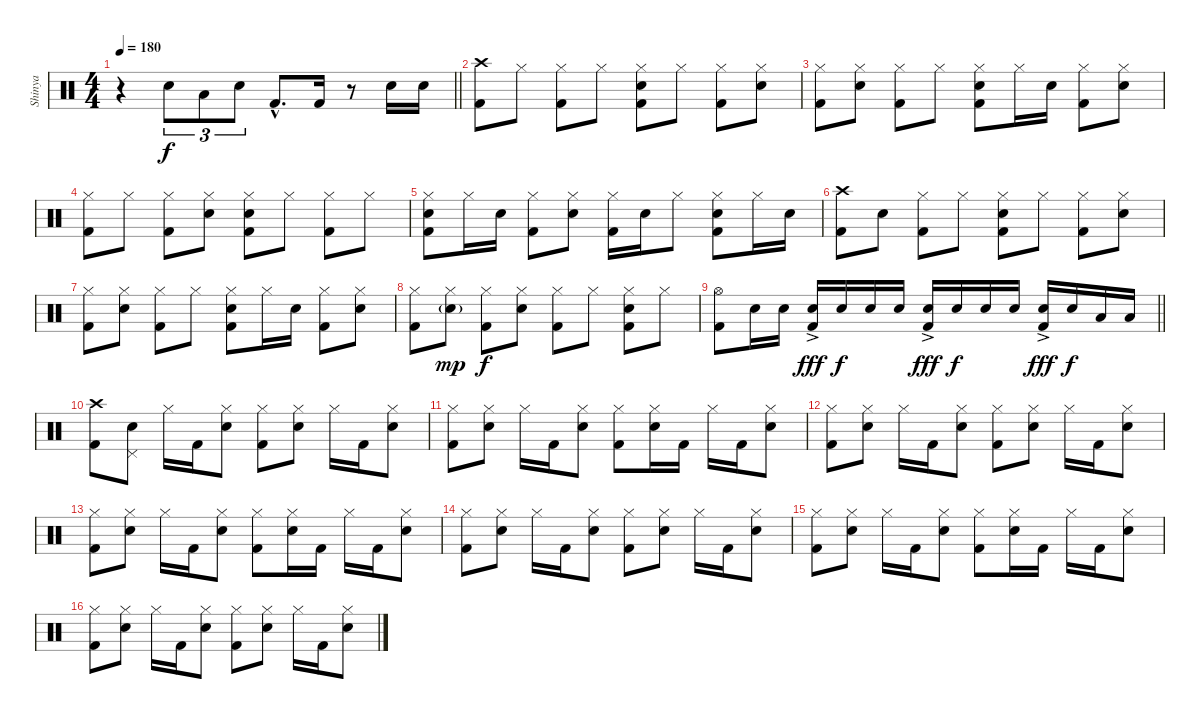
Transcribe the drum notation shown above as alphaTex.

\track ("Shinya" "Shinya") {instrument percussion}
\staff {score}
\articulation defaults
\ts (4 4)
\tempo 180
\clef neutral
\barLineRight lightlight
\ks c
r.4{dy f} "Electric Snare (hit)".8{tu (3 2)} "Low Tom (hit)".8{tu (3 2)} "Electric Snare (hit)".8{tu (3 2)} "Kick (hit) 2"{hac}.8{d} "Kick (hit) 2".16 r.8 "Electric Snare (hit)".16 "Electric Snare (hit)".16 |
("Crash high (hit)" "Kick (hit) 2").8 "Hi-Hat (closed)".8 ("Hi-Hat (closed)" "Kick (hit) 2").8 "Hi-Hat (closed)".8 ("Hi-Hat (closed)" "Electric Snare (hit)" "Kick (hit) 2").8 "Hi-Hat (closed)".8 ("Hi-Hat (closed)" "Kick (hit) 2").8 ("Hi-Hat (closed)" "Electric Snare (hit)").8 |
("Hi-Hat (closed)" "Kick (hit) 2").8 ("Hi-Hat (closed)" "Electric Snare (hit)").8 ("Hi-Hat (closed)" "Kick (hit) 2").8 "Hi-Hat (closed)".8 ("Hi-Hat (closed)" "Electric Snare (hit)" "Kick (hit) 2").8 "Hi-Hat (closed)".16 "Electric Snare (hit)".16 ("Hi-Hat (closed)" "Kick (hit) 2").8 ("Hi-Hat (closed)" "Electric Snare (hit)").8 |
("Hi-Hat (closed)" "Kick (hit) 2").8 "Hi-Hat (closed)".8 ("Hi-Hat (closed)" "Kick (hit) 2").8 ("Hi-Hat (closed)" "Electric Snare (hit)").8 ("Hi-Hat (closed)" "Electric Snare (hit)" "Kick (hit) 2").8 "Hi-Hat (closed)".8 ("Hi-Hat (closed)" "Kick (hit) 2").8 "Hi-Hat (closed)".8 |
("Hi-Hat (closed)" "Electric Snare (hit)" "Kick (hit) 2").8 "Hi-Hat (closed)".16 "Electric Snare (hit)".16 ("Hi-Hat (closed)" "Kick (hit) 2").8 ("Hi-Hat (closed)" "Electric Snare (hit)").8 ("Hi-Hat (closed)" "Kick (hit) 2").16 "Electric Snare (hit)".16 "Hi-Hat (closed)".8 ("Hi-Hat (closed)" "Electric Snare (hit)" "Kick (hit) 2").8 "Hi-Hat (closed)".16 "Electric Snare (hit)".16 |
("Crash high (hit)" "Kick (hit) 2").8 "Electric Snare (hit)".8 ("Hi-Hat (closed)" "Kick (hit) 2").8 "Hi-Hat (closed)".8 ("Hi-Hat (closed)" "Electric Snare (hit)" "Kick (hit) 2").8 "Hi-Hat (closed)".8 ("Hi-Hat (closed)" "Kick (hit) 2").8 ("Hi-Hat (closed)" "Electric Snare (hit)").8 |
("Hi-Hat (closed)" "Kick (hit) 2").8 ("Hi-Hat (closed)" "Electric Snare (hit)").8 ("Hi-Hat (closed)" "Kick (hit) 2").8 "Hi-Hat (closed)".8 ("Hi-Hat (closed)" "Electric Snare (hit)" "Kick (hit) 2").8 "Hi-Hat (closed)".16 "Electric Snare (hit)".16 ("Hi-Hat (closed)" "Kick (hit) 2").8 ("Hi-Hat (closed)" "Electric Snare (hit)").8 |
("Hi-Hat (closed)" "Kick (hit) 2").8 ("Hi-Hat (closed)" "Electric Snare (hit)"{g}).8{dy mp} ("Hi-Hat (closed)" "Kick (hit) 2").8{dy f} ("Hi-Hat (closed)" "Electric Snare (hit)").8 ("Hi-Hat (closed)" "Kick (hit) 2").8 "Hi-Hat (closed)".8 ("Hi-Hat (closed)" "Electric Snare (hit)" "Kick (hit) 2").8 "Hi-Hat (closed)".8 |
\barLineRight lightlight
("Hi-Hat (open)" "Kick (hit) 2").8 "Electric Snare (hit)".16 "Electric Snare (hit)".16 ("Electric Snare (hit)"{ac} "Kick (hit) 2").16{dy fff} "Electric Snare (hit)".16{dy f} "Electric Snare (hit)".16 "Electric Snare (hit)".16 ("Electric Snare (hit)"{ac} "Kick (hit) 2").16{dy fff} "Electric Snare (hit)".16{dy f} "Electric Snare (hit)".16 "Electric Snare (hit)".16 ("Electric Snare (hit)"{ac} "Kick (hit) 2").16{dy fff} "Electric Snare (hit)".16{dy f} "Low Tom (hit)".16 "Low Tom (hit)".16 |
("Crash high (hit)" "Kick (hit) 2").8 ("Pedal Hi-Hat (hit)" "Electric Snare (hit)").8 "Hi-Hat (closed)".16 "Kick (hit) 2".16 ("Hi-Hat (closed)" "Electric Snare (hit)").8 ("Hi-Hat (closed)" "Kick (hit) 2").8 ("Hi-Hat (closed)" "Electric Snare (hit)").8 "Hi-Hat (closed)".16 "Kick (hit) 2".16 ("Hi-Hat (closed)" "Electric Snare (hit)").8 |
("Hi-Hat (closed)" "Kick (hit) 2").8 ("Hi-Hat (closed)" "Electric Snare (hit)").8 "Hi-Hat (closed)".16 "Kick (hit) 2".16 ("Hi-Hat (closed)" "Electric Snare (hit)").8 ("Hi-Hat (closed)" "Kick (hit) 2").8 ("Hi-Hat (closed)" "Electric Snare (hit)").16 "Kick (hit) 2".16 "Hi-Hat (closed)".16 "Kick (hit) 2".16 ("Hi-Hat (closed)" "Electric Snare (hit)").8 |
("Hi-Hat (closed)" "Kick (hit) 2").8 ("Hi-Hat (closed)" "Electric Snare (hit)").8 "Hi-Hat (closed)".16 "Kick (hit) 2".16 ("Hi-Hat (closed)" "Electric Snare (hit)").8 ("Hi-Hat (closed)" "Kick (hit) 2").8 ("Hi-Hat (closed)" "Electric Snare (hit)").8 "Hi-Hat (closed)".16 "Kick (hit) 2".16 ("Hi-Hat (closed)" "Electric Snare (hit)").8 |
("Hi-Hat (closed)" "Kick (hit) 2").8 ("Hi-Hat (closed)" "Electric Snare (hit)").8 "Hi-Hat (closed)".16 "Kick (hit) 2".16 ("Hi-Hat (closed)" "Electric Snare (hit)").8 ("Hi-Hat (closed)" "Kick (hit) 2").8 ("Hi-Hat (closed)" "Electric Snare (hit)").16 "Kick (hit) 2".16 "Hi-Hat (closed)".16 "Kick (hit) 2".16 ("Hi-Hat (closed)" "Electric Snare (hit)").8 |
("Hi-Hat (closed)" "Kick (hit) 2").8 ("Hi-Hat (closed)" "Electric Snare (hit)").8 "Hi-Hat (closed)".16 "Kick (hit) 2".16 ("Hi-Hat (closed)" "Electric Snare (hit)").8 ("Hi-Hat (closed)" "Kick (hit) 2").8 ("Hi-Hat (closed)" "Electric Snare (hit)").8 "Hi-Hat (closed)".16 "Kick (hit) 2".16 ("Hi-Hat (closed)" "Electric Snare (hit)").8 |
("Hi-Hat (closed)" "Kick (hit) 2").8 ("Hi-Hat (closed)" "Electric Snare (hit)").8 "Hi-Hat (closed)".16 "Kick (hit) 2".16 ("Hi-Hat (closed)" "Electric Snare (hit)").8 ("Hi-Hat (closed)" "Kick (hit) 2").8 ("Hi-Hat (closed)" "Electric Snare (hit)").16 "Kick (hit) 2".16 "Hi-Hat (closed)".16 "Kick (hit) 2".16 ("Hi-Hat (closed)" "Electric Snare (hit)").8 |
("Hi-Hat (closed)" "Kick (hit) 2").8 ("Hi-Hat (closed)" "Electric Snare (hit)").8 "Hi-Hat (closed)".16 "Kick (hit) 2".16 ("Hi-Hat (closed)" "Electric Snare (hit)").8 ("Hi-Hat (closed)" "Kick (hit) 2").8 ("Hi-Hat (closed)" "Electric Snare (hit)").8 "Hi-Hat (closed)".16 "Kick (hit) 2".16 ("Hi-Hat (closed)" "Electric Snare (hit)").8
